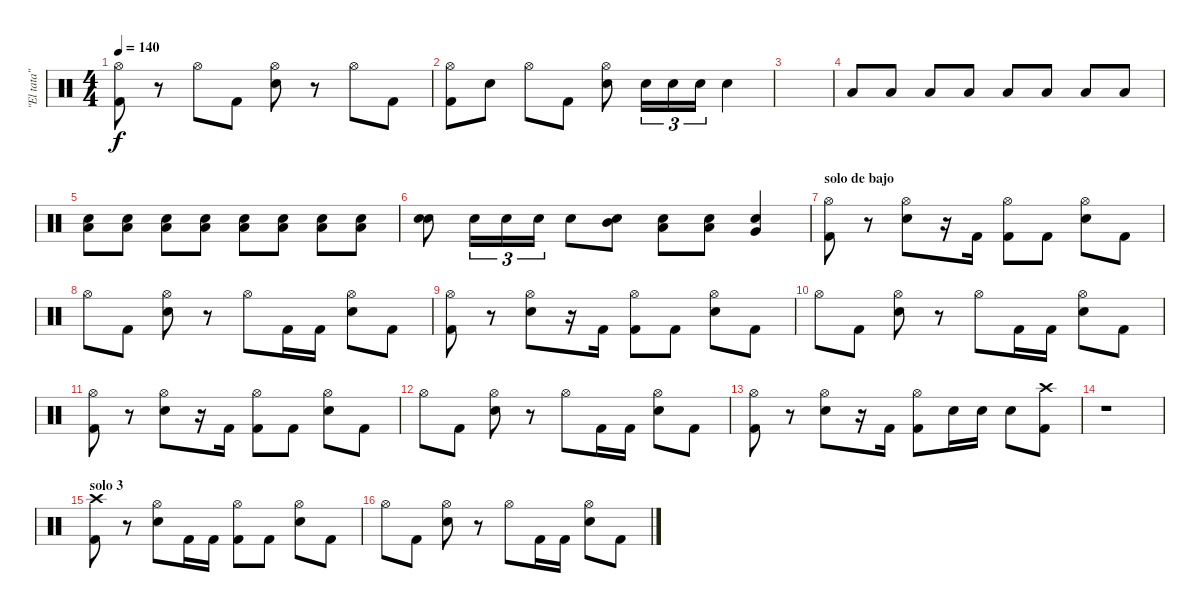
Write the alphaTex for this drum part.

\track ("\"El tata\"" "\"El tata\"") {instrument percussion}
\staff {score}
\articulation defaults
\ts (4 4)
\tempo 140
\clef neutral
\ks c
("Hi-Hat (open)" "Kick (hit) 2").8{dy f} r.8 "Hi-Hat (open)".8 "Kick (hit) 2".8 ("Hi-Hat (open)" "Electric Snare (hit)").8 r.8 "Hi-Hat (open)".8 "Kick (hit) 2".8 |
("Hi-Hat (open)" "Kick (hit) 2").8 "Electric Snare (hit)".8 "Hi-Hat (open)".8 "Kick (hit) 2".8 ("Hi-Hat (open)" "Electric Snare (hit)").8 "Electric Snare (hit)".16{tu (3 2)} "Electric Snare (hit)".16{tu (3 2)} "Electric Snare (hit)".16{tu (3 2)} "Electric Snare (hit)".4 |
|
"Low Tom (hit)".8 "Low Tom (hit)".8 "Low Tom (hit)".8 "Low Tom (hit)".8 "Low Tom (hit)".8 "Low Tom (hit)".8 "Low Tom (hit)".8 "Low Tom (hit)".8 |
("Low Tom (hit)" "Electric Snare (hit)").8 ("Low Tom (hit)" "Electric Snare (hit)").8 ("Low Tom (hit)" "Electric Snare (hit)").8 ("Low Tom (hit)" "Electric Snare (hit)").8 ("Low Tom (hit)" "Electric Snare (hit)").8 ("Low Tom (hit)" "Electric Snare (hit)").8 ("Low Tom (hit)" "Electric Snare (hit)").8 ("Low Tom (hit)" "Electric Snare (hit)").8 |
("Electric Snare (hit)" "Electric Snare (hit)").8 "Electric Snare (hit)".16{tu (3 2)} "Electric Snare (hit)".16{tu (3 2)} "Electric Snare (hit)".16{tu (3 2)} "Electric Snare (hit)".8 ("Electric Snare (hit)" "Mid Tom (hit)").8 ("Electric Snare (hit)" "Low Tom (hit)").8 ("Electric Snare (hit)" "Low Tom (hit)").8 ("Electric Snare (hit)" "Very Low Tom (hit)").4 |
\section ("" "solo de bajo")
("Hi-Hat (open)" "Kick (hit) 2").8 r.8 ("Hi-Hat (open)" "Electric Snare (hit)").8 r.16 "Kick (hit) 2".16 ("Hi-Hat (open)" "Kick (hit) 2").8 "Kick (hit) 2".8 ("Hi-Hat (open)" "Electric Snare (hit)").8 "Kick (hit) 2".8 |
"Hi-Hat (open)".8 "Kick (hit) 2".8 ("Hi-Hat (open)" "Electric Snare (hit)").8 r.8 "Hi-Hat (open)".8 "Kick (hit) 2".16 "Kick (hit) 2".16 ("Hi-Hat (open)" "Electric Snare (hit)").8 "Kick (hit) 2".8 |
("Hi-Hat (open)" "Kick (hit) 2").8 r.8 ("Hi-Hat (open)" "Electric Snare (hit)").8 r.16 "Kick (hit) 2".16 ("Hi-Hat (open)" "Kick (hit) 2").8 "Kick (hit) 2".8 ("Hi-Hat (open)" "Electric Snare (hit)").8 "Kick (hit) 2".8 |
"Hi-Hat (open)".8 "Kick (hit) 2".8 ("Hi-Hat (open)" "Electric Snare (hit)").8 r.8 "Hi-Hat (open)".8 "Kick (hit) 2".16 "Kick (hit) 2".16 ("Hi-Hat (open)" "Electric Snare (hit)").8 "Kick (hit) 2".8 |
("Hi-Hat (open)" "Kick (hit) 2").8 r.8 ("Hi-Hat (open)" "Electric Snare (hit)").8 r.16 "Kick (hit) 2".16 ("Hi-Hat (open)" "Kick (hit) 2").8 "Kick (hit) 2".8 ("Hi-Hat (open)" "Electric Snare (hit)").8 "Kick (hit) 2".8 |
"Hi-Hat (open)".8 "Kick (hit) 2".8 ("Hi-Hat (open)" "Electric Snare (hit)").8 r.8 "Hi-Hat (open)".8 "Kick (hit) 2".16 "Kick (hit) 2".16 ("Hi-Hat (open)" "Electric Snare (hit)").8 "Kick (hit) 2".8 |
("Hi-Hat (open)" "Kick (hit) 2").8 r.8 ("Hi-Hat (open)" "Electric Snare (hit)").8 r.16 "Kick (hit) 2".16 ("Hi-Hat (open)" "Kick (hit) 2").8 "Electric Snare (hit)".16 "Electric Snare (hit)".16 "Electric Snare (hit)".8 ("Crash high (hit)" "Kick (hit) 2").8 |
r.1 |
\section ("" "solo 3")
("Crash high (hit)" "Kick (hit) 2").8 r.8 ("Hi-Hat (open)" "Electric Snare (hit)").8 "Kick (hit) 2".16 "Kick (hit) 2".16 ("Hi-Hat (open)" "Kick (hit) 2").8 "Kick (hit) 2".8 ("Hi-Hat (open)" "Electric Snare (hit)").8 "Kick (hit) 2".8 |
"Hi-Hat (open)".8 "Kick (hit) 2".8 ("Hi-Hat (open)" "Electric Snare (hit)").8 r.8 "Hi-Hat (open)".8 "Kick (hit) 2".16 "Kick (hit) 2".16 ("Hi-Hat (open)" "Electric Snare (hit)").8 "Kick (hit) 2".8
